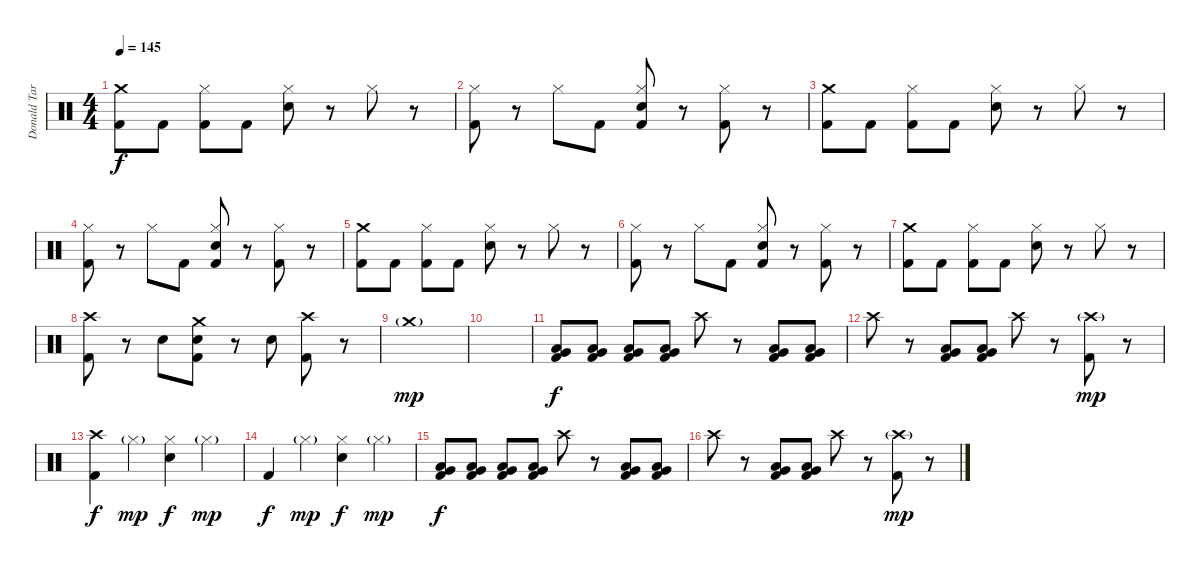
\track ("Donald Tardy" "Donald Tar") {instrument percussion}
\staff {score}
\articulation defaults
\ts (4 4)
\tempo 145
\clef neutral
\ks c
("Crash medium (hit)" "Kick (hit) 2").8{dy f} "Kick (hit) 2".8 ("Hi-Hat (closed)" "Kick (hit) 2").8 "Kick (hit) 2".8 ("Hi-Hat (closed)" "Electric Snare (hit)").8 r.8 "Hi-Hat (closed)".8 r.8 |
("Hi-Hat (closed)" "Kick (hit) 2").8 r.8 "Hi-Hat (closed)".8 "Kick (hit) 2".8 ("Hi-Hat (closed)" "Electric Snare (hit)" "Kick (hit) 2").8 r.8 ("Hi-Hat (closed)" "Kick (hit) 2").8 r.8 |
("Crash medium (hit)" "Kick (hit) 2").8 "Kick (hit) 2".8 ("Hi-Hat (closed)" "Kick (hit) 2").8 "Kick (hit) 2".8 ("Hi-Hat (closed)" "Electric Snare (hit)").8 r.8 "Hi-Hat (closed)".8 r.8 |
("Hi-Hat (closed)" "Kick (hit) 2").8 r.8 "Hi-Hat (closed)".8 "Kick (hit) 2".8 ("Hi-Hat (closed)" "Electric Snare (hit)" "Kick (hit) 2").8 r.8 ("Hi-Hat (closed)" "Kick (hit) 2").8 r.8 |
("Crash medium (hit)" "Kick (hit) 2").8 "Kick (hit) 2".8 ("Hi-Hat (closed)" "Kick (hit) 2").8 "Kick (hit) 2".8 ("Hi-Hat (closed)" "Electric Snare (hit)").8 r.8 "Hi-Hat (closed)".8 r.8 |
("Hi-Hat (closed)" "Kick (hit) 2").8 r.8 "Hi-Hat (closed)".8 "Kick (hit) 2".8 ("Hi-Hat (closed)" "Electric Snare (hit)" "Kick (hit) 2").8 r.8 ("Hi-Hat (closed)" "Kick (hit) 2").8 r.8 |
("Crash medium (hit)" "Kick (hit) 2").8 "Kick (hit) 2".8 ("Hi-Hat (closed)" "Kick (hit) 2").8 "Kick (hit) 2".8 ("Hi-Hat (closed)" "Electric Snare (hit)").8 r.8 "Hi-Hat (closed)".8 r.8 |
("Crash high (hit)" "Kick (hit) 2").8 r.8 "Electric Snare (hit)".8 ("Crash medium (hit)" "Electric Snare (hit)" "Kick (hit) 2").8 r.8 "Electric Snare (hit)".8 ("Crash high (hit)" "Kick (hit) 2").8 r.8 |
"Crash medium (hit)"{g}.1{dy mp} |
|
("Very Low Tom (hit)" "Low Floor Tom (hit)" "Kick (hit) 2").8{dy f} ("Very Low Tom (hit)" "Low Floor Tom (hit)" "Kick (hit) 2").8 ("Very Low Tom (hit)" "Low Floor Tom (hit)" "Kick (hit) 2").8 ("Very Low Tom (hit)" "Low Floor Tom (hit)" "Kick (hit) 2").8 "Crash high (hit)".8 r.8 ("Very Low Tom (hit)" "Low Floor Tom (hit)" "Kick (hit) 2").8 ("Very Low Tom (hit)" "Low Floor Tom (hit)" "Kick (hit) 2").8 |
"Crash high (hit)".8 r.8 ("Very Low Tom (hit)" "Low Floor Tom (hit)" "Kick (hit) 2").8 ("Very Low Tom (hit)" "Low Floor Tom (hit)" "Kick (hit) 2").8 "Crash high (hit)".8 r.8 ("Crash high (hit)"{g} "Kick (hit) 2").8{dy mp} r.8 |
("Crash high (hit)" "Kick (hit) 2").4{dy f} "Hi-Hat (closed)"{g}.4{dy mp} ("Hi-Hat (closed)" "Electric Snare (hit)").4{dy f} "Hi-Hat (closed)"{g}.4{dy mp} |
"Kick (hit) 2".4{dy f} "Hi-Hat (closed)"{g}.4{dy mp} ("Hi-Hat (closed)" "Electric Snare (hit)").4{dy f} "Hi-Hat (closed)"{g}.4{dy mp} |
("Very Low Tom (hit)" "Low Floor Tom (hit)" "Kick (hit) 2").8{dy f} ("Very Low Tom (hit)" "Low Floor Tom (hit)" "Kick (hit) 2").8 ("Very Low Tom (hit)" "Low Floor Tom (hit)" "Kick (hit) 2").8 ("Very Low Tom (hit)" "Low Floor Tom (hit)" "Kick (hit) 2").8 "Crash high (hit)".8 r.8 ("Very Low Tom (hit)" "Low Floor Tom (hit)" "Kick (hit) 2").8 ("Very Low Tom (hit)" "Low Floor Tom (hit)" "Kick (hit) 2").8 |
"Crash high (hit)".8 r.8 ("Very Low Tom (hit)" "Low Floor Tom (hit)" "Kick (hit) 2").8 ("Very Low Tom (hit)" "Low Floor Tom (hit)" "Kick (hit) 2").8 "Crash high (hit)".8 r.8 ("Crash high (hit)"{g} "Kick (hit) 2").8{dy mp} r.8
